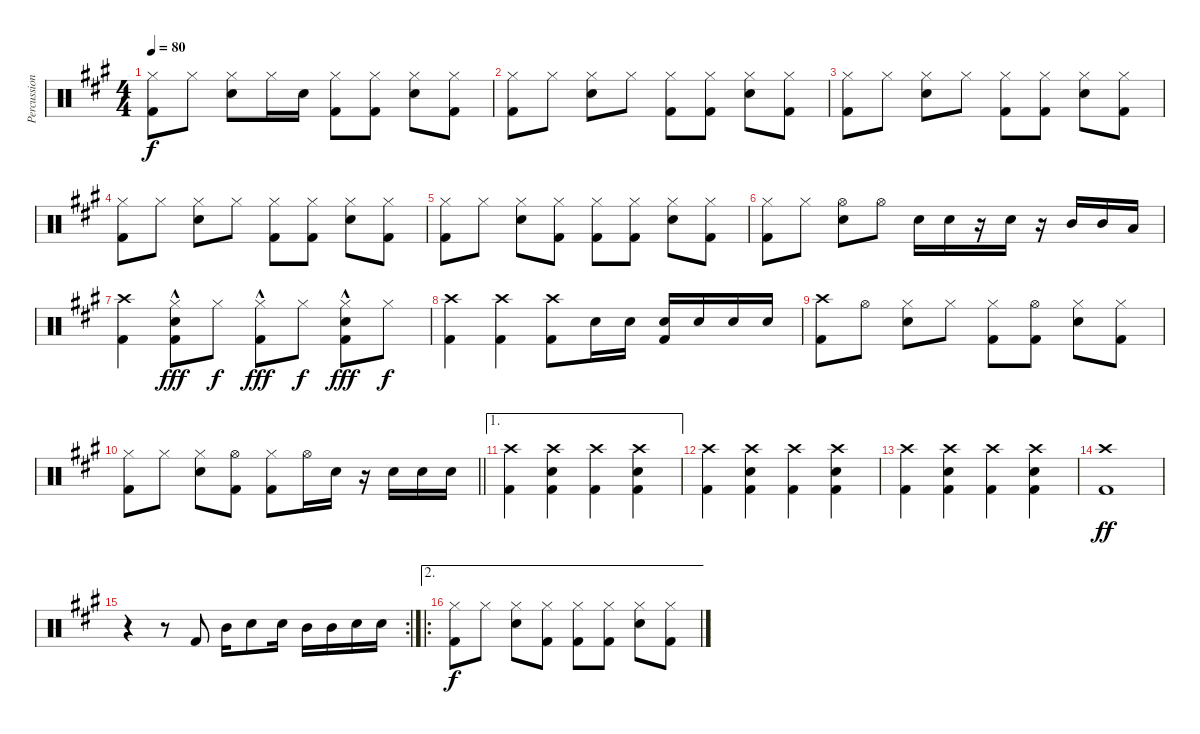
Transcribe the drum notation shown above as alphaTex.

\track ("Percussion" "Percussion") {instrument percussion}
\staff {score}
\articulation defaults
\ts (4 4)
\tempo 80
\clef neutral
\ks a
("Hi-Hat (closed)" "Kick (hit) 2").8{dy f} "Hi-Hat (closed)".8 ("Hi-Hat (closed)" "Snare (hit) 2").8 "Hi-Hat (closed)".16 "Snare (hit) 2".16 ("Hi-Hat (closed)" "Kick (hit) 2").8 ("Hi-Hat (closed)" "Kick (hit) 2").8 ("Hi-Hat (closed)" "Snare (hit) 2").8 ("Hi-Hat (closed)" "Kick (hit) 2").8 |
("Hi-Hat (closed)" "Kick (hit) 2").8 "Hi-Hat (closed)".8 ("Hi-Hat (closed)" "Snare (hit) 2").8 "Hi-Hat (closed)".8 ("Hi-Hat (closed)" "Kick (hit) 2").8 ("Hi-Hat (closed)" "Kick (hit) 2").8 ("Hi-Hat (closed)" "Snare (hit) 2").8 ("Hi-Hat (closed)" "Kick (hit) 2").8 |
("Hi-Hat (closed)" "Kick (hit) 2").8 "Hi-Hat (closed)".8 ("Hi-Hat (closed)" "Snare (hit) 2").8 "Hi-Hat (closed)".8 ("Hi-Hat (closed)" "Kick (hit) 2").8 ("Hi-Hat (closed)" "Kick (hit) 2").8 ("Hi-Hat (closed)" "Snare (hit) 2").8 ("Hi-Hat (closed)" "Kick (hit) 2").8 |
("Hi-Hat (closed)" "Kick (hit) 2").8 "Hi-Hat (closed)".8 ("Hi-Hat (closed)" "Snare (hit) 2").8 "Hi-Hat (closed)".8 ("Hi-Hat (closed)" "Kick (hit) 2").8 ("Hi-Hat (closed)" "Kick (hit) 2").8 ("Hi-Hat (closed)" "Snare (hit) 2").8 ("Hi-Hat (closed)" "Kick (hit) 2").8 |
("Hi-Hat (closed)" "Kick (hit) 2").8 "Hi-Hat (closed)".8 ("Hi-Hat (closed)" "Snare (hit) 2").8 ("Hi-Hat (closed)" "Kick (hit) 2").8 ("Hi-Hat (closed)" "Kick (hit) 2").8 ("Hi-Hat (closed)" "Kick (hit) 2").8 ("Hi-Hat (closed)" "Snare (hit) 2").8 ("Hi-Hat (closed)" "Kick (hit) 2").8 |
("Hi-Hat (closed)" "Kick (hit) 2").8 "Hi-Hat (closed)".8 ("Hi-Hat (open)" "Snare (hit) 2").8 "Hi-Hat (open)".8 "Snare (hit) 2".16 "Snare (hit) 2".16 r.16 "Snare (hit) 2".16 r.16 "Mid Tom (hit)".16 "Mid Tom (hit)".16 "Low Floor Tom (hit)".16 |
("Crash high (hit)" "Kick (hit) 2").4 ("Hi-Hat (closed)"{hac} "Kick (hit) 2" "Snare (hit) 2").8{dy fff} "Hi-Hat (closed)".8{dy f} ("Hi-Hat (closed)"{hac} "Kick (hit) 2").8{dy fff} "Hi-Hat (closed)".8{dy f} ("Hi-Hat (closed)"{hac} "Kick (hit) 2" "Snare (hit) 2").8{dy fff} "Hi-Hat (closed)".8{dy f} |
("Crash high (hit)" "Kick (hit) 2").4 ("Crash high (hit)" "Kick (hit) 2").4 ("Crash high (hit)" "Kick (hit) 2").8 "Snare (hit) 2".16 "Snare (hit) 2".16 ("Snare (hit) 2" "Kick (hit) 2").16 "Snare (hit) 2".16 "Snare (hit) 2".16 "Snare (hit) 2".16 |
("Crash high (hit)" "Kick (hit) 2").8 "Hi-Hat (open)".8 ("Hi-Hat (closed)" "Snare (hit) 2").8 "Hi-Hat (closed)".8 ("Hi-Hat (closed)" "Kick (hit) 2").8 ("Hi-Hat (open)" "Kick (hit) 2").8 ("Hi-Hat (closed)" "Snare (hit) 2").8 ("Hi-Hat (closed)" "Kick (hit) 2").8 |
\barLineRight lightlight
("Hi-Hat (closed)" "Kick (hit) 2").8 "Hi-Hat (closed)".8 ("Hi-Hat (closed)" "Snare (hit) 2").8 ("Hi-Hat (open)" "Kick (hit) 2").8 ("Hi-Hat (closed)" "Kick (hit) 2").8 "Hi-Hat (open)".16 "Snare (hit) 2".16 r.16 "Snare (hit) 2".16 "Snare (hit) 2".16 "Snare (hit) 2".16 |
\ae 1
("Crash high (hit)" "Kick (hit) 2").4 ("Crash high (hit)" "Kick (hit) 2" "Snare (hit) 2").4 ("Crash high (hit)" "Kick (hit) 2").4 ("Crash high (hit)" "Kick (hit) 2" "Snare (hit) 2").4 |
("Crash high (hit)" "Kick (hit) 2").4 ("Crash high (hit)" "Kick (hit) 2" "Snare (hit) 2").4 ("Crash high (hit)" "Kick (hit) 2").4 ("Crash high (hit)" "Kick (hit) 2" "Snare (hit) 2").4 |
("Crash high (hit)" "Kick (hit) 2").4 ("Crash high (hit)" "Kick (hit) 2" "Snare (hit) 2").4 ("Crash high (hit)" "Kick (hit) 2").4 ("Crash high (hit)" "Kick (hit) 2" "Snare (hit) 2").4 |
("Crash high (hit)" "Kick (hit) 2").1{dy ff} |
\rc 2
r.4 r.8 "Kick (hit) 2".8 "Mid Tom (hit)".16 "Snare (hit) 2".8 "Snare (hit) 2".16 "Mid Tom (hit)".16 "Mid Tom (hit)".16 "Snare (hit) 2".16 "Snare (hit) 2".16 |
\ae 2
\ro
("Hi-Hat (closed)" "Kick (hit) 2").8{dy f} "Hi-Hat (closed)".8 ("Hi-Hat (closed)" "Snare (hit) 2").8 ("Hi-Hat (closed)" "Kick (hit) 2").8 ("Hi-Hat (closed)" "Kick (hit) 2").8 ("Hi-Hat (closed)" "Kick (hit) 2").8 ("Hi-Hat (closed)" "Snare (hit) 2").8 ("Hi-Hat (closed)" "Kick (hit) 2").8
